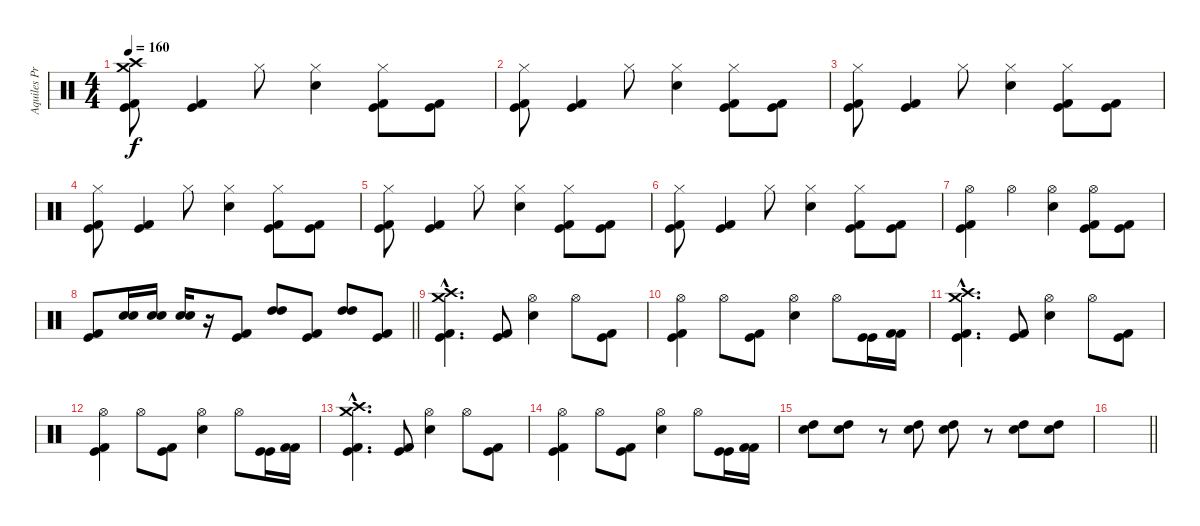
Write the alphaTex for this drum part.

\track ("Aquiles Priester" "Aquiles Pr") {instrument percussion}
\staff {score}
\articulation defaults
\ts (4 4)
\tempo 160
\clef neutral
\ks c
("Crash medium (hit)" "Crash high (hit)" "Kick (hit) 2" "Kick (hit)").8{dy f} ("Kick (hit)" "Kick (hit) 2").4 "Hi-Hat (closed)".8 ("Hi-Hat (closed)" "Electric Snare (hit)").4 ("Hi-Hat (closed)" "Kick (hit) 2" "Kick (hit)").8 ("Kick (hit)" "Kick (hit) 2").8 |
("Hi-Hat (closed)" "Kick (hit) 2" "Kick (hit)").8 ("Kick (hit)" "Kick (hit) 2").4 "Hi-Hat (closed)".8 ("Hi-Hat (closed)" "Electric Snare (hit)").4 ("Hi-Hat (closed)" "Kick (hit) 2" "Kick (hit)").8 ("Kick (hit)" "Kick (hit) 2").8 |
("Hi-Hat (closed)" "Kick (hit) 2" "Kick (hit)").8 ("Kick (hit)" "Kick (hit) 2").4 "Hi-Hat (closed)".8 ("Hi-Hat (closed)" "Electric Snare (hit)").4 ("Hi-Hat (closed)" "Kick (hit) 2" "Kick (hit)").8 ("Kick (hit)" "Kick (hit) 2").8 |
("Hi-Hat (closed)" "Kick (hit) 2" "Kick (hit)").8 ("Kick (hit)" "Kick (hit) 2").4 "Hi-Hat (closed)".8 ("Hi-Hat (closed)" "Electric Snare (hit)").4 ("Hi-Hat (closed)" "Kick (hit) 2" "Kick (hit)").8 ("Kick (hit)" "Kick (hit) 2").8 |
("Hi-Hat (closed)" "Kick (hit) 2" "Kick (hit)").8 ("Kick (hit)" "Kick (hit) 2").4 "Hi-Hat (closed)".8 ("Hi-Hat (closed)" "Electric Snare (hit)").4 ("Hi-Hat (closed)" "Kick (hit) 2" "Kick (hit)").8 ("Kick (hit)" "Kick (hit) 2").8 |
("Hi-Hat (closed)" "Kick (hit) 2" "Kick (hit)").8 ("Kick (hit)" "Kick (hit) 2").4 "Hi-Hat (closed)".8 ("Hi-Hat (closed)" "Electric Snare (hit)").4 ("Hi-Hat (closed)" "Kick (hit) 2" "Kick (hit)").8 ("Kick (hit)" "Kick (hit) 2").8 |
("Hi-Hat (open)" "Kick (hit) 2" "Kick (hit)").4 "Hi-Hat (open)".4 ("Hi-Hat (open)" "Electric Snare (hit)").4 ("Hi-Hat (open)" "Kick (hit) 2" "Kick (hit)").8 ("Kick (hit)" "Kick (hit) 2").8 |
\barLineRight lightlight
("Kick (hit) 2" "Kick (hit)").8 ("Electric Snare (hit)" "Electric Snare (hit)").16 ("Electric Snare (hit)" "Electric Snare (hit)").16 ("Electric Snare (hit)" "Electric Snare (hit)").16 r.16 ("Kick (hit)" "Kick (hit) 2").8 ("High Tom (hit)" "High Tom (hit)").8 ("Kick (hit)" "Kick (hit) 2").8 ("High Tom (hit)" "High Tom (hit)").8 ("Kick (hit)" "Kick (hit) 2").8 |
("Crash medium (hit)"{hac} "Crash high (hit)"{hac} "Kick (hit) 2"{hac} "Kick (hit)"{hac}).4{d} ("Kick (hit)" "Kick (hit) 2").8 ("Hi-Hat (open)" "Electric Snare (hit)").4 "Hi-Hat (open)".8 ("Kick (hit)" "Kick (hit) 2").8 |
("Hi-Hat (open)" "Kick (hit) 2" "Kick (hit)").4 "Hi-Hat (open)".8 ("Kick (hit)" "Kick (hit) 2").8 ("Hi-Hat (open)" "Electric Snare (hit)").4 "Hi-Hat (open)".8 ("Kick (hit)" "Kick (hit)").16 ("Kick (hit) 2" "Kick (hit) 2").16 |
("Crash medium (hit)"{hac} "Crash high (hit)"{hac} "Kick (hit) 2"{hac} "Kick (hit)"{hac}).4{d} ("Kick (hit)" "Kick (hit) 2").8 ("Hi-Hat (open)" "Electric Snare (hit)").4 "Hi-Hat (open)".8 ("Kick (hit)" "Kick (hit) 2").8 |
("Hi-Hat (open)" "Kick (hit) 2" "Kick (hit)").4 "Hi-Hat (open)".8 ("Kick (hit)" "Kick (hit) 2").8 ("Hi-Hat (open)" "Electric Snare (hit)").4 "Hi-Hat (open)".8 ("Kick (hit)" "Kick (hit)").16 ("Kick (hit) 2" "Kick (hit) 2").16 |
("Crash medium (hit)"{hac} "Crash high (hit)"{hac} "Kick (hit) 2"{hac} "Kick (hit)"{hac}).4{d} ("Kick (hit)" "Kick (hit) 2").8 ("Hi-Hat (open)" "Electric Snare (hit)").4 "Hi-Hat (open)".8 ("Kick (hit)" "Kick (hit) 2").8 |
("Hi-Hat (open)" "Kick (hit) 2" "Kick (hit)").4 "Hi-Hat (open)".8 ("Kick (hit)" "Kick (hit) 2").8 ("Hi-Hat (open)" "Electric Snare (hit)").4 "Hi-Hat (open)".8 ("Kick (hit)" "Kick (hit)").16 ("Kick (hit) 2" "Kick (hit) 2").16 |
("High Tom (hit)" "Electric Snare (hit)").8 ("High Tom (hit)" "Electric Snare (hit)").8 r.8 ("High Tom (hit)" "Electric Snare (hit)").8 ("High Tom (hit)" "Electric Snare (hit)").8 r.8 ("High Tom (hit)" "Electric Snare (hit)").8 ("High Tom (hit)" "Electric Snare (hit)").8 |
\barLineRight lightlight
